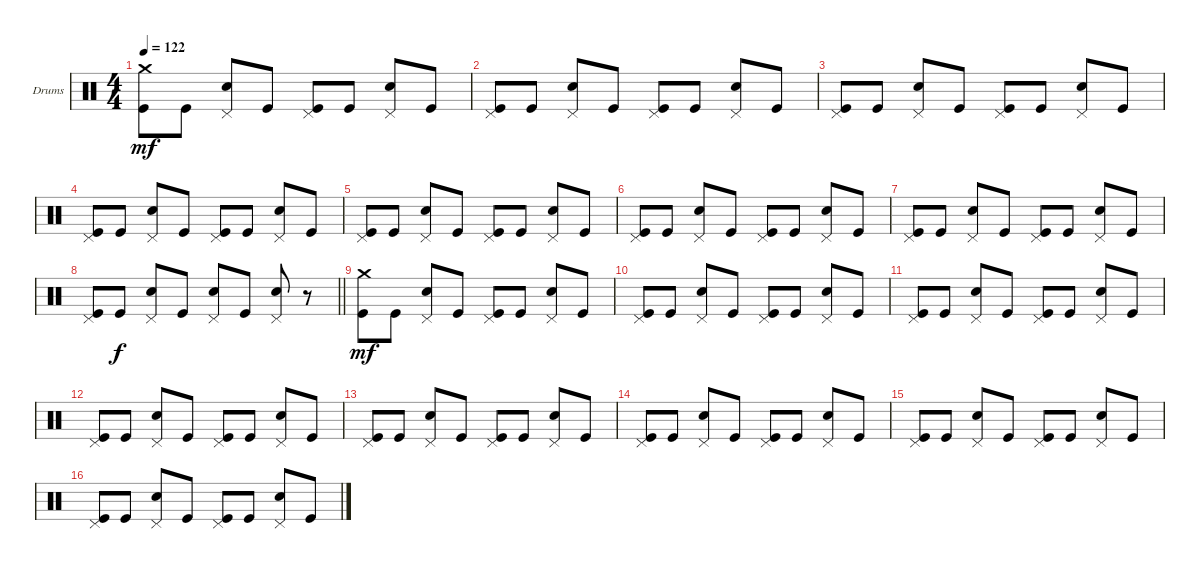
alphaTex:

\defaultSystemsLayout 4
\bracketExtendMode groupsimilarinstruments
\firstSystemTrackNameOrientation horizontal
\otherSystemsTrackNameOrientation horizontal
\track ("Drum" "Drums") {instrument percussion}
\staff {score}
\articulation defaults
\ts (4 4)
\tempo 122
\clef neutral
\ks c
("Kick (hit)" "Crash medium (hit)").8{dy mf} "Kick (hit)".8 ("Snare (hit) 2" "Pedal Hi-Hat (hit)").8 "Kick (hit)".8 ("Kick (hit)" "Pedal Hi-Hat (hit)").8 "Kick (hit)".8 ("Snare (hit) 2" "Pedal Hi-Hat (hit)").8 "Kick (hit)".8 |
("Kick (hit)" "Pedal Hi-Hat (hit)").8 "Kick (hit)".8 ("Snare (hit) 2" "Pedal Hi-Hat (hit)").8 "Kick (hit)".8 ("Kick (hit)" "Pedal Hi-Hat (hit)").8 "Kick (hit)".8 ("Snare (hit) 2" "Pedal Hi-Hat (hit)").8 "Kick (hit)".8 |
("Kick (hit)" "Pedal Hi-Hat (hit)").8 "Kick (hit)".8 ("Snare (hit) 2" "Pedal Hi-Hat (hit)").8 "Kick (hit)".8 ("Kick (hit)" "Pedal Hi-Hat (hit)").8 "Kick (hit)".8 ("Snare (hit) 2" "Pedal Hi-Hat (hit)").8 "Kick (hit)".8 |
("Kick (hit)" "Pedal Hi-Hat (hit)").8 "Kick (hit)".8 ("Snare (hit) 2" "Pedal Hi-Hat (hit)").8 "Kick (hit)".8 ("Kick (hit)" "Pedal Hi-Hat (hit)").8 "Kick (hit)".8 ("Snare (hit) 2" "Pedal Hi-Hat (hit)").8 "Kick (hit)".8 |
("Kick (hit)" "Pedal Hi-Hat (hit)").8 "Kick (hit)".8 ("Snare (hit) 2" "Pedal Hi-Hat (hit)").8 "Kick (hit)".8 ("Kick (hit)" "Pedal Hi-Hat (hit)").8 "Kick (hit)".8 ("Snare (hit) 2" "Pedal Hi-Hat (hit)").8 "Kick (hit)".8 |
("Kick (hit)" "Pedal Hi-Hat (hit)").8 "Kick (hit)".8 ("Snare (hit) 2" "Pedal Hi-Hat (hit)").8 "Kick (hit)".8 ("Kick (hit)" "Pedal Hi-Hat (hit)").8 "Kick (hit)".8 ("Snare (hit) 2" "Pedal Hi-Hat (hit)").8 "Kick (hit)".8 |
("Kick (hit)" "Pedal Hi-Hat (hit)").8 "Kick (hit)".8 ("Snare (hit) 2" "Pedal Hi-Hat (hit)").8 "Kick (hit)".8 ("Kick (hit)" "Pedal Hi-Hat (hit)").8 "Kick (hit)".8 ("Snare (hit) 2" "Pedal Hi-Hat (hit)").8 "Kick (hit)".8 |
\barLineRight lightlight
("Kick (hit)" "Pedal Hi-Hat (hit)").8 "Kick (hit)".8{dy f} ("Snare (hit) 2" "Pedal Hi-Hat (hit)").8 "Kick (hit)".8 ("Snare (hit) 2" "Pedal Hi-Hat (hit)").8 "Kick (hit)".8 ("Snare (hit) 2" "Pedal Hi-Hat (hit)").8 r.8 |
("Kick (hit)" "Crash medium (hit)").8{dy mf} "Kick (hit)".8 ("Snare (hit) 2" "Pedal Hi-Hat (hit)").8 "Kick (hit)".8 ("Kick (hit)" "Pedal Hi-Hat (hit)").8 "Kick (hit)".8 ("Snare (hit) 2" "Pedal Hi-Hat (hit)").8 "Kick (hit)".8 |
("Kick (hit)" "Pedal Hi-Hat (hit)").8 "Kick (hit)".8 ("Snare (hit) 2" "Pedal Hi-Hat (hit)").8 "Kick (hit)".8 ("Kick (hit)" "Pedal Hi-Hat (hit)").8 "Kick (hit)".8 ("Snare (hit) 2" "Pedal Hi-Hat (hit)").8 "Kick (hit)".8 |
("Kick (hit)" "Pedal Hi-Hat (hit)").8 "Kick (hit)".8 ("Snare (hit) 2" "Pedal Hi-Hat (hit)").8 "Kick (hit)".8 ("Kick (hit)" "Pedal Hi-Hat (hit)").8 "Kick (hit)".8 ("Snare (hit) 2" "Pedal Hi-Hat (hit)").8 "Kick (hit)".8 |
("Kick (hit)" "Pedal Hi-Hat (hit)").8 "Kick (hit)".8 ("Snare (hit) 2" "Pedal Hi-Hat (hit)").8 "Kick (hit)".8 ("Kick (hit)" "Pedal Hi-Hat (hit)").8 "Kick (hit)".8 ("Snare (hit) 2" "Pedal Hi-Hat (hit)").8 "Kick (hit)".8 |
("Kick (hit)" "Pedal Hi-Hat (hit)").8 "Kick (hit)".8 ("Snare (hit) 2" "Pedal Hi-Hat (hit)").8 "Kick (hit)".8 ("Kick (hit)" "Pedal Hi-Hat (hit)").8 "Kick (hit)".8 ("Snare (hit) 2" "Pedal Hi-Hat (hit)").8 "Kick (hit)".8 |
("Kick (hit)" "Pedal Hi-Hat (hit)").8 "Kick (hit)".8 ("Snare (hit) 2" "Pedal Hi-Hat (hit)").8 "Kick (hit)".8 ("Kick (hit)" "Pedal Hi-Hat (hit)").8 "Kick (hit)".8 ("Snare (hit) 2" "Pedal Hi-Hat (hit)").8 "Kick (hit)".8 |
("Kick (hit)" "Pedal Hi-Hat (hit)").8 "Kick (hit)".8 ("Snare (hit) 2" "Pedal Hi-Hat (hit)").8 "Kick (hit)".8 ("Kick (hit)" "Pedal Hi-Hat (hit)").8 "Kick (hit)".8 ("Snare (hit) 2" "Pedal Hi-Hat (hit)").8 "Kick (hit)".8 |
("Kick (hit)" "Pedal Hi-Hat (hit)").8 "Kick (hit)".8 ("Snare (hit) 2" "Pedal Hi-Hat (hit)").8 "Kick (hit)".8 ("Kick (hit)" "Pedal Hi-Hat (hit)").8 "Kick (hit)".8 ("Snare (hit) 2" "Pedal Hi-Hat (hit)").8 "Kick (hit)".8
